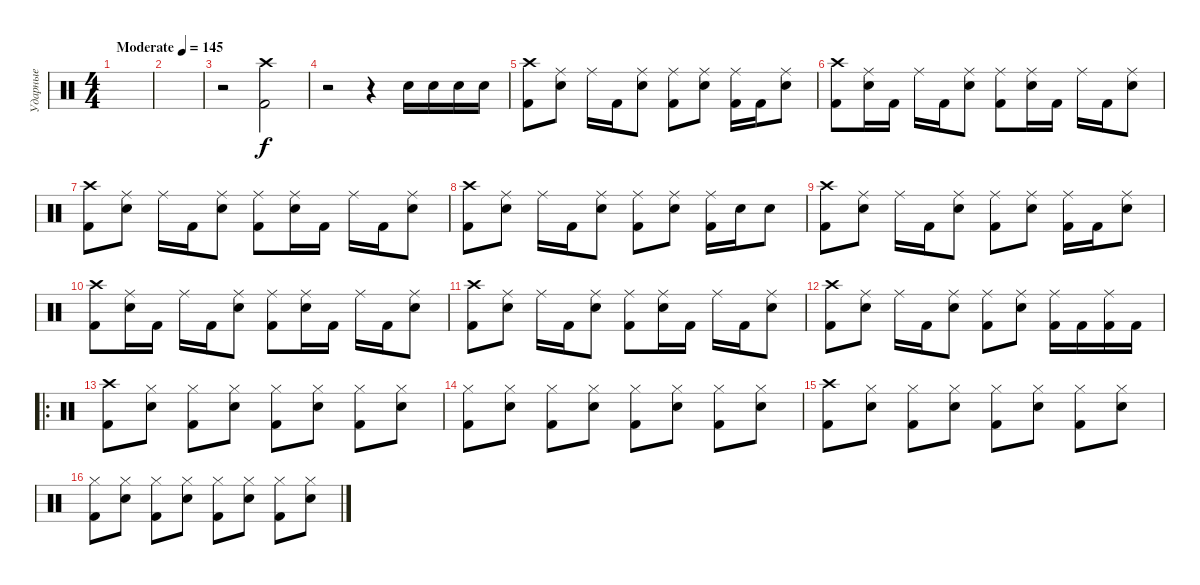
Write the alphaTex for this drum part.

\track ("Ударные" "Ударные") {instrument percussion}
\staff {score}
\articulation defaults
\ts (4 4)
\tempo (145 "Moderate")
\clef neutral
\ks c
|
|
r.2 ("Kick (hit) 2" "Crash high (hit)").2 |
r.2 r.4 "Electric Snare (hit)".16 "Electric Snare (hit)".16 "Electric Snare (hit)".16 "Electric Snare (hit)".16 |
("Kick (hit) 2" "Crash high (hit)").8 ("Electric Snare (hit)" "Ride (middle)").8 "Ride (middle)".16 "Kick (hit) 2".16 ("Electric Snare (hit)" "Ride (middle)").8 ("Kick (hit) 2" "Ride (middle)").8 ("Electric Snare (hit)" "Ride (middle)").8 ("Kick (hit) 2" "Ride (middle)").16 "Kick (hit) 2".16 ("Electric Snare (hit)" "Ride (middle)").8 |
("Kick (hit) 2" "Crash high (hit)").8 ("Electric Snare (hit)" "Ride (middle)").16 "Kick (hit) 2".16 "Ride (middle)".16 "Kick (hit) 2".16 ("Electric Snare (hit)" "Ride (middle)").8 ("Kick (hit) 2" "Ride (middle)").8 ("Electric Snare (hit)" "Ride (middle)").16 "Kick (hit) 2".16 "Ride (middle)".16 "Kick (hit) 2".16 ("Electric Snare (hit)" "Ride (middle)").8 |
("Kick (hit) 2" "Crash high (hit)").8 ("Electric Snare (hit)" "Ride (middle)").8 "Ride (middle)".16 "Kick (hit) 2".16 ("Electric Snare (hit)" "Ride (middle)").8 ("Kick (hit) 2" "Ride (middle)").8 ("Electric Snare (hit)" "Ride (middle)").16 "Kick (hit) 2".16 "Ride (middle)".16 "Kick (hit) 2".16 ("Electric Snare (hit)" "Ride (middle)").8 |
("Kick (hit) 2" "Crash high (hit)").8 ("Electric Snare (hit)" "Ride (middle)").8 "Ride (middle)".16 "Kick (hit) 2".16 ("Electric Snare (hit)" "Ride (middle)").8 ("Kick (hit) 2" "Ride (middle)").8 ("Electric Snare (hit)" "Ride (middle)").8 ("Kick (hit) 2" "Ride (middle)").16 "Electric Snare (hit)".16 "Electric Snare (hit)".8 |
("Kick (hit) 2" "Crash high (hit)").8 ("Electric Snare (hit)" "Ride (middle)").8 "Ride (middle)".16 "Kick (hit) 2".16 ("Electric Snare (hit)" "Ride (middle)").8 ("Kick (hit) 2" "Ride (middle)").8 ("Electric Snare (hit)" "Ride (middle)").8 ("Kick (hit) 2" "Ride (middle)").16 "Kick (hit) 2".16 ("Electric Snare (hit)" "Ride (middle)").8 |
("Kick (hit) 2" "Crash high (hit)").8 ("Electric Snare (hit)" "Ride (middle)").16 "Kick (hit) 2".16 "Ride (middle)".16 "Kick (hit) 2".16 ("Electric Snare (hit)" "Ride (middle)").8 ("Kick (hit) 2" "Ride (middle)").8 ("Electric Snare (hit)" "Ride (middle)").16 "Kick (hit) 2".16 "Ride (middle)".16 "Kick (hit) 2".16 ("Electric Snare (hit)" "Ride (middle)").8 |
("Kick (hit) 2" "Crash high (hit)").8 ("Electric Snare (hit)" "Ride (middle)").8 "Ride (middle)".16 "Kick (hit) 2".16 ("Electric Snare (hit)" "Ride (middle)").8 ("Kick (hit) 2" "Ride (middle)").8 ("Electric Snare (hit)" "Ride (middle)").16 "Kick (hit) 2".16 "Ride (middle)".16 "Kick (hit) 2".16 ("Electric Snare (hit)" "Ride (middle)").8 |
("Kick (hit) 2" "Crash high (hit)").8 ("Electric Snare (hit)" "Ride (middle)").8 "Ride (middle)".16 "Kick (hit) 2".16 ("Electric Snare (hit)" "Ride (middle)").8 ("Kick (hit) 2" "Ride (middle)").8 ("Electric Snare (hit)" "Ride (middle)").8 ("Kick (hit) 2" "Ride (middle)").16 "Kick (hit) 2".16 ("Kick (hit) 2" "Ride (middle)").16 "Kick (hit) 2".16 |
\ro
("Kick (hit) 2" "Crash high (hit)").8 ("Electric Snare (hit)" "Hi-Hat (closed)").8 ("Kick (hit) 2" "Hi-Hat (closed)").8 ("Electric Snare (hit)" "Hi-Hat (closed)").8 ("Kick (hit) 2" "Hi-Hat (closed)").8 ("Electric Snare (hit)" "Hi-Hat (closed)").8 ("Kick (hit) 2" "Hi-Hat (closed)").8 ("Electric Snare (hit)" "Hi-Hat (closed)").8 |
("Kick (hit) 2" "Hi-Hat (closed)").8 ("Electric Snare (hit)" "Hi-Hat (closed)").8 ("Kick (hit) 2" "Hi-Hat (closed)").8 ("Electric Snare (hit)" "Hi-Hat (closed)").8 ("Kick (hit) 2" "Hi-Hat (closed)").8 ("Electric Snare (hit)" "Hi-Hat (closed)").8 ("Kick (hit) 2" "Hi-Hat (closed)").8 ("Electric Snare (hit)" "Hi-Hat (closed)").8 |
("Kick (hit) 2" "Crash high (hit)").8 ("Electric Snare (hit)" "Hi-Hat (closed)").8 ("Kick (hit) 2" "Hi-Hat (closed)").8 ("Electric Snare (hit)" "Hi-Hat (closed)").8 ("Kick (hit) 2" "Hi-Hat (closed)").8 ("Electric Snare (hit)" "Hi-Hat (closed)").8 ("Kick (hit) 2" "Hi-Hat (closed)").8 ("Electric Snare (hit)" "Hi-Hat (closed)").8 |
("Kick (hit) 2" "Hi-Hat (closed)").8 ("Electric Snare (hit)" "Hi-Hat (closed)").8 ("Kick (hit) 2" "Hi-Hat (closed)").8 ("Electric Snare (hit)" "Hi-Hat (closed)").8 ("Kick (hit) 2" "Hi-Hat (closed)").8 ("Electric Snare (hit)" "Hi-Hat (closed)").8 ("Kick (hit) 2" "Hi-Hat (closed)").8 ("Electric Snare (hit)" "Hi-Hat (closed)").8
